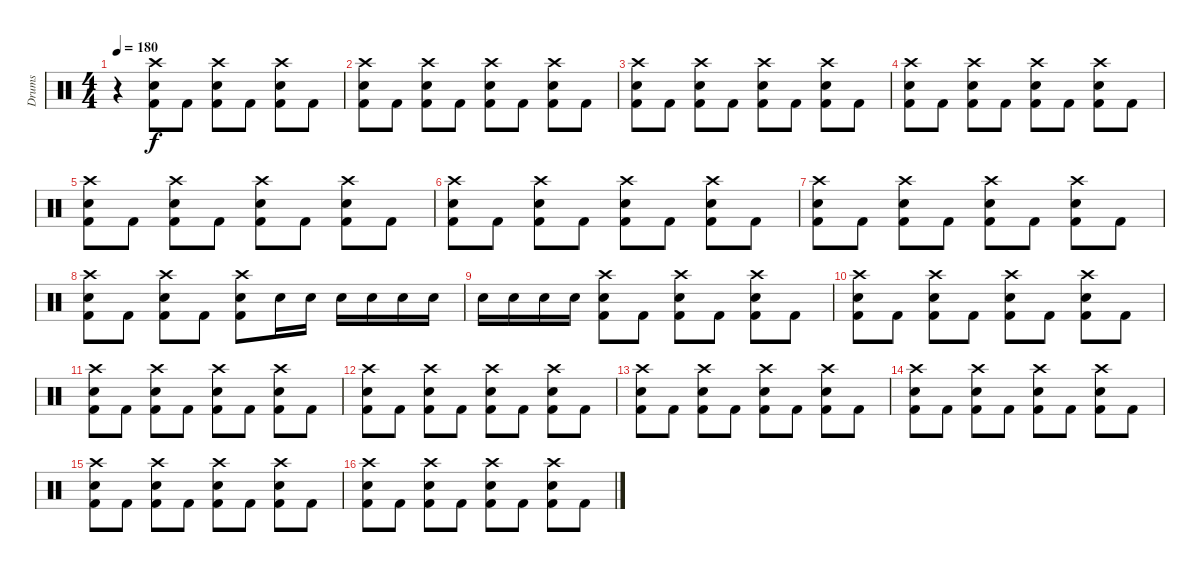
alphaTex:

\track ("Drums" "Drums") {instrument percussion}
\staff {score}
\articulation defaults
\ts (4 4)
\tempo 180
\clef neutral
\ks c
r.4{dy f} ("Snare (hit) 2" "Kick (hit) 2" "Crash high (hit)").8 "Kick (hit) 2".8 ("Snare (hit) 2" "Kick (hit) 2" "Crash high (hit)").8 "Kick (hit) 2".8 ("Snare (hit) 2" "Kick (hit) 2" "Crash high (hit)").8 "Kick (hit) 2".8 |
("Snare (hit) 2" "Kick (hit) 2" "Crash high (hit)").8 "Kick (hit) 2".8 ("Snare (hit) 2" "Kick (hit) 2" "Crash high (hit)").8 "Kick (hit) 2".8 ("Snare (hit) 2" "Kick (hit) 2" "Crash high (hit)").8 "Kick (hit) 2".8 ("Snare (hit) 2" "Kick (hit) 2" "Crash high (hit)").8 "Kick (hit) 2".8 |
("Snare (hit) 2" "Kick (hit) 2" "Crash high (hit)").8 "Kick (hit) 2".8 ("Snare (hit) 2" "Kick (hit) 2" "Crash high (hit)").8 "Kick (hit) 2".8 ("Snare (hit) 2" "Kick (hit) 2" "Crash high (hit)").8 "Kick (hit) 2".8 ("Snare (hit) 2" "Kick (hit) 2" "Crash high (hit)").8 "Kick (hit) 2".8 |
("Snare (hit) 2" "Kick (hit) 2" "Crash high (hit)").8 "Kick (hit) 2".8 ("Snare (hit) 2" "Kick (hit) 2" "Crash high (hit)").8 "Kick (hit) 2".8 ("Snare (hit) 2" "Kick (hit) 2" "Crash high (hit)").8 "Kick (hit) 2".8 ("Snare (hit) 2" "Kick (hit) 2" "Crash high (hit)").8 "Kick (hit) 2".8 |
("Snare (hit) 2" "Kick (hit) 2" "Crash high (hit)").8 "Kick (hit) 2".8 ("Snare (hit) 2" "Kick (hit) 2" "Crash high (hit)").8 "Kick (hit) 2".8 ("Snare (hit) 2" "Kick (hit) 2" "Crash high (hit)").8 "Kick (hit) 2".8 ("Snare (hit) 2" "Kick (hit) 2" "Crash high (hit)").8 "Kick (hit) 2".8 |
("Snare (hit) 2" "Kick (hit) 2" "Crash high (hit)").8 "Kick (hit) 2".8 ("Snare (hit) 2" "Kick (hit) 2" "Crash high (hit)").8 "Kick (hit) 2".8 ("Snare (hit) 2" "Kick (hit) 2" "Crash high (hit)").8 "Kick (hit) 2".8 ("Snare (hit) 2" "Kick (hit) 2" "Crash high (hit)").8 "Kick (hit) 2".8 |
("Snare (hit) 2" "Kick (hit) 2" "Crash high (hit)").8 "Kick (hit) 2".8 ("Snare (hit) 2" "Kick (hit) 2" "Crash high (hit)").8 "Kick (hit) 2".8 ("Snare (hit) 2" "Kick (hit) 2" "Crash high (hit)").8 "Kick (hit) 2".8 ("Snare (hit) 2" "Kick (hit) 2" "Crash high (hit)").8 "Kick (hit) 2".8 |
("Snare (hit) 2" "Kick (hit) 2" "Crash high (hit)").8 "Kick (hit) 2".8 ("Snare (hit) 2" "Kick (hit) 2" "Crash high (hit)").8 "Kick (hit) 2".8 ("Snare (hit) 2" "Kick (hit) 2" "Crash high (hit)").8 "Snare (hit) 2".16 "Snare (hit) 2".16 "Snare (hit) 2".16 "Snare (hit) 2".16 "Snare (hit) 2".16 "Snare (hit) 2".16 |
"Snare (hit) 2".16 "Snare (hit) 2".16 "Snare (hit) 2".16 "Snare (hit) 2".16 ("Snare (hit) 2" "Kick (hit) 2" "Crash high (hit)").8 "Kick (hit) 2".8 ("Snare (hit) 2" "Kick (hit) 2" "Crash high (hit)").8 "Kick (hit) 2".8 ("Snare (hit) 2" "Kick (hit) 2" "Crash high (hit)").8 "Kick (hit) 2".8 |
("Snare (hit) 2" "Kick (hit) 2" "Crash high (hit)").8 "Kick (hit) 2".8 ("Snare (hit) 2" "Kick (hit) 2" "Crash high (hit)").8 "Kick (hit) 2".8 ("Snare (hit) 2" "Kick (hit) 2" "Crash high (hit)").8 "Kick (hit) 2".8 ("Snare (hit) 2" "Kick (hit) 2" "Crash high (hit)").8 "Kick (hit) 2".8 |
("Snare (hit) 2" "Kick (hit) 2" "Crash high (hit)").8 "Kick (hit) 2".8 ("Snare (hit) 2" "Kick (hit) 2" "Crash high (hit)").8 "Kick (hit) 2".8 ("Snare (hit) 2" "Kick (hit) 2" "Crash high (hit)").8 "Kick (hit) 2".8 ("Snare (hit) 2" "Kick (hit) 2" "Crash high (hit)").8 "Kick (hit) 2".8 |
("Snare (hit) 2" "Kick (hit) 2" "Crash high (hit)").8 "Kick (hit) 2".8 ("Snare (hit) 2" "Kick (hit) 2" "Crash high (hit)").8 "Kick (hit) 2".8 ("Snare (hit) 2" "Kick (hit) 2" "Crash high (hit)").8 "Kick (hit) 2".8 ("Snare (hit) 2" "Kick (hit) 2" "Crash high (hit)").8 "Kick (hit) 2".8 |
("Snare (hit) 2" "Kick (hit) 2" "Crash high (hit)").8 "Kick (hit) 2".8 ("Snare (hit) 2" "Kick (hit) 2" "Crash high (hit)").8 "Kick (hit) 2".8 ("Snare (hit) 2" "Kick (hit) 2" "Crash high (hit)").8 "Kick (hit) 2".8 ("Snare (hit) 2" "Kick (hit) 2" "Crash high (hit)").8 "Kick (hit) 2".8 |
("Snare (hit) 2" "Kick (hit) 2" "Crash high (hit)").8 "Kick (hit) 2".8 ("Snare (hit) 2" "Kick (hit) 2" "Crash high (hit)").8 "Kick (hit) 2".8 ("Snare (hit) 2" "Kick (hit) 2" "Crash high (hit)").8 "Kick (hit) 2".8 ("Snare (hit) 2" "Kick (hit) 2" "Crash high (hit)").8 "Kick (hit) 2".8 |
("Snare (hit) 2" "Kick (hit) 2" "Crash high (hit)").8 "Kick (hit) 2".8 ("Snare (hit) 2" "Kick (hit) 2" "Crash high (hit)").8 "Kick (hit) 2".8 ("Snare (hit) 2" "Kick (hit) 2" "Crash high (hit)").8 "Kick (hit) 2".8 ("Snare (hit) 2" "Kick (hit) 2" "Crash high (hit)").8 "Kick (hit) 2".8 |
("Snare (hit) 2" "Kick (hit) 2" "Crash high (hit)").8 "Kick (hit) 2".8 ("Snare (hit) 2" "Kick (hit) 2" "Crash high (hit)").8 "Kick (hit) 2".8 ("Snare (hit) 2" "Kick (hit) 2" "Crash high (hit)").8 "Kick (hit) 2".8 ("Snare (hit) 2" "Kick (hit) 2" "Crash high (hit)").8 "Kick (hit) 2".8
